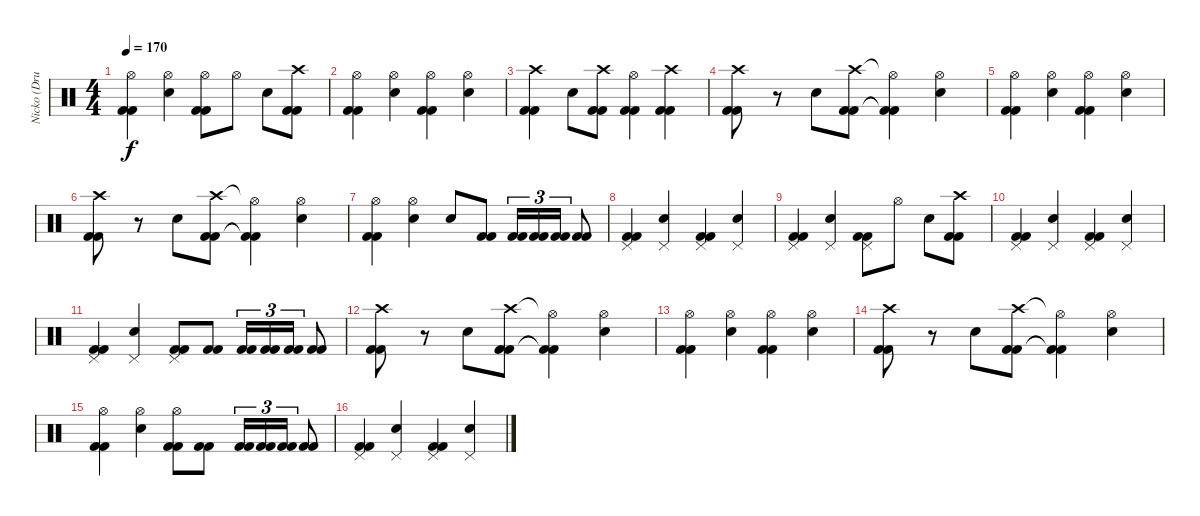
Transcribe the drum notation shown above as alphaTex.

\track ("Nicko (Drums)" "Nicko (Dru") {instrument percussion}
\staff {score}
\articulation defaults
\ts (4 4)
\tempo 170
\clef neutral
\ks c
("Hi-Hat (open)" "Kick (hit) 2" "Kick (hit) 2").4{dy f} ("Hi-Hat (open)" "Snare (hit) 2").4 ("Hi-Hat (open)" "Kick (hit) 2" "Kick (hit) 2").8 "Hi-Hat (open)".8 "Snare (hit) 2".8 ("Crash high (hit)" "Kick (hit) 2" "Kick (hit) 2").8 |
("Hi-Hat (open)" "Kick (hit) 2" "Kick (hit) 2").4 ("Hi-Hat (open)" "Snare (hit) 2").4 ("Hi-Hat (open)" "Kick (hit) 2" "Kick (hit) 2").4 ("Hi-Hat (open)" "Snare (hit) 2").4 |
("Crash high (hit)" "Kick (hit) 2" "Kick (hit) 2").4 "Snare (hit) 2".8 ("Crash high (hit)" "Kick (hit) 2" "Kick (hit) 2").8 ("Hi-Hat (open)" "Kick (hit) 2" "Kick (hit) 2").4 ("Crash high (hit)" "Kick (hit) 2" "Kick (hit) 2").4 |
("Crash high (hit)" "Kick (hit) 2" "Kick (hit) 2").8 r.8 "Snare (hit) 2".8 ("Crash high (hit)" "Kick (hit) 2" "Kick (hit) 2").8 ("Hi-Hat (open)"{t} "Kick (hit) 2"{t} "Kick (hit) 2"{t}).4 ("Hi-Hat (open)" "Snare (hit) 2").4 |
("Hi-Hat (open)" "Kick (hit) 2" "Kick (hit) 2").4 ("Hi-Hat (open)" "Snare (hit) 2").4 ("Hi-Hat (open)" "Kick (hit) 2" "Kick (hit) 2").4 ("Hi-Hat (open)" "Snare (hit) 2").4 |
("Crash high (hit)" "Kick (hit) 2" "Kick (hit) 2").8 r.8 "Snare (hit) 2".8 ("Crash high (hit)" "Kick (hit) 2" "Kick (hit) 2").8 ("Hi-Hat (open)"{t} "Kick (hit) 2"{t} "Kick (hit) 2"{t}).4 ("Hi-Hat (open)" "Snare (hit) 2").4 |
("Hi-Hat (open)" "Kick (hit) 2" "Kick (hit) 2").4 ("Hi-Hat (open)" "Snare (hit) 2").4 "Snare (hit) 2".8 ("Kick (hit) 2" "Kick (hit) 2").8 ("Kick (hit) 2" "Kick (hit) 2").16{tu (3 2)} ("Kick (hit) 2" "Kick (hit) 2").16{tu (3 2)} ("Kick (hit) 2" "Kick (hit) 2").16{tu (3 2)} ("Kick (hit) 2" "Kick (hit) 2").8 |
("Pedal Hi-Hat (hit)" "Kick (hit) 2" "Kick (hit) 2").4 ("Pedal Hi-Hat (hit)" "Snare (hit) 2").4 ("Pedal Hi-Hat (hit)" "Kick (hit) 2" "Kick (hit) 2").4 ("Pedal Hi-Hat (hit)" "Snare (hit) 2").4 |
("Pedal Hi-Hat (hit)" "Kick (hit) 2" "Kick (hit) 2").4 ("Pedal Hi-Hat (hit)" "Snare (hit) 2").4 ("Pedal Hi-Hat (hit)" "Kick (hit) 2" "Kick (hit) 2").8 "Hi-Hat (open)".8 "Snare (hit) 2".8 ("Crash high (hit)" "Kick (hit) 2" "Kick (hit) 2").8 |
("Pedal Hi-Hat (hit)" "Kick (hit) 2" "Kick (hit) 2").4 ("Pedal Hi-Hat (hit)" "Snare (hit) 2").4 ("Pedal Hi-Hat (hit)" "Kick (hit) 2" "Kick (hit) 2").4 ("Pedal Hi-Hat (hit)" "Snare (hit) 2").4 |
("Pedal Hi-Hat (hit)" "Kick (hit) 2" "Kick (hit) 2").4 ("Pedal Hi-Hat (hit)" "Snare (hit) 2").4 ("Pedal Hi-Hat (hit)" "Kick (hit) 2" "Kick (hit) 2").8 ("Kick (hit) 2" "Kick (hit) 2").8 ("Kick (hit) 2" "Kick (hit) 2").16{tu (3 2)} ("Kick (hit) 2" "Kick (hit) 2").16{tu (3 2)} ("Kick (hit) 2" "Kick (hit) 2").16{tu (3 2)} ("Kick (hit) 2" "Kick (hit) 2").8 |
("Crash high (hit)" "Kick (hit) 2" "Kick (hit) 2").8 r.8 "Snare (hit) 2".8 ("Crash high (hit)" "Kick (hit) 2" "Kick (hit) 2").8 ("Hi-Hat (open)"{t} "Kick (hit) 2"{t} "Kick (hit) 2"{t}).4 ("Hi-Hat (open)" "Snare (hit) 2").4 |
("Hi-Hat (open)" "Kick (hit) 2" "Kick (hit) 2").4 ("Hi-Hat (open)" "Snare (hit) 2").4 ("Hi-Hat (open)" "Kick (hit) 2" "Kick (hit) 2").4 ("Hi-Hat (open)" "Snare (hit) 2").4 |
("Crash high (hit)" "Kick (hit) 2" "Kick (hit) 2").8 r.8 "Snare (hit) 2".8 ("Crash high (hit)" "Kick (hit) 2" "Kick (hit) 2").8 ("Hi-Hat (open)"{t} "Kick (hit) 2"{t} "Kick (hit) 2"{t}).4 ("Hi-Hat (open)" "Snare (hit) 2").4 |
("Hi-Hat (open)" "Kick (hit) 2" "Kick (hit) 2").4 ("Hi-Hat (open)" "Snare (hit) 2").4 ("Hi-Hat (open)" "Kick (hit) 2" "Kick (hit) 2").8 ("Kick (hit) 2" "Kick (hit) 2").8 ("Kick (hit) 2" "Kick (hit) 2").16{tu (3 2)} ("Kick (hit) 2" "Kick (hit) 2").16{tu (3 2)} ("Kick (hit) 2" "Kick (hit) 2").16{tu (3 2)} ("Kick (hit) 2" "Kick (hit) 2").8 |
("Pedal Hi-Hat (hit)" "Kick (hit) 2" "Kick (hit) 2").4 ("Pedal Hi-Hat (hit)" "Snare (hit) 2").4 ("Pedal Hi-Hat (hit)" "Kick (hit) 2" "Kick (hit) 2").4 ("Pedal Hi-Hat (hit)" "Snare (hit) 2").4
